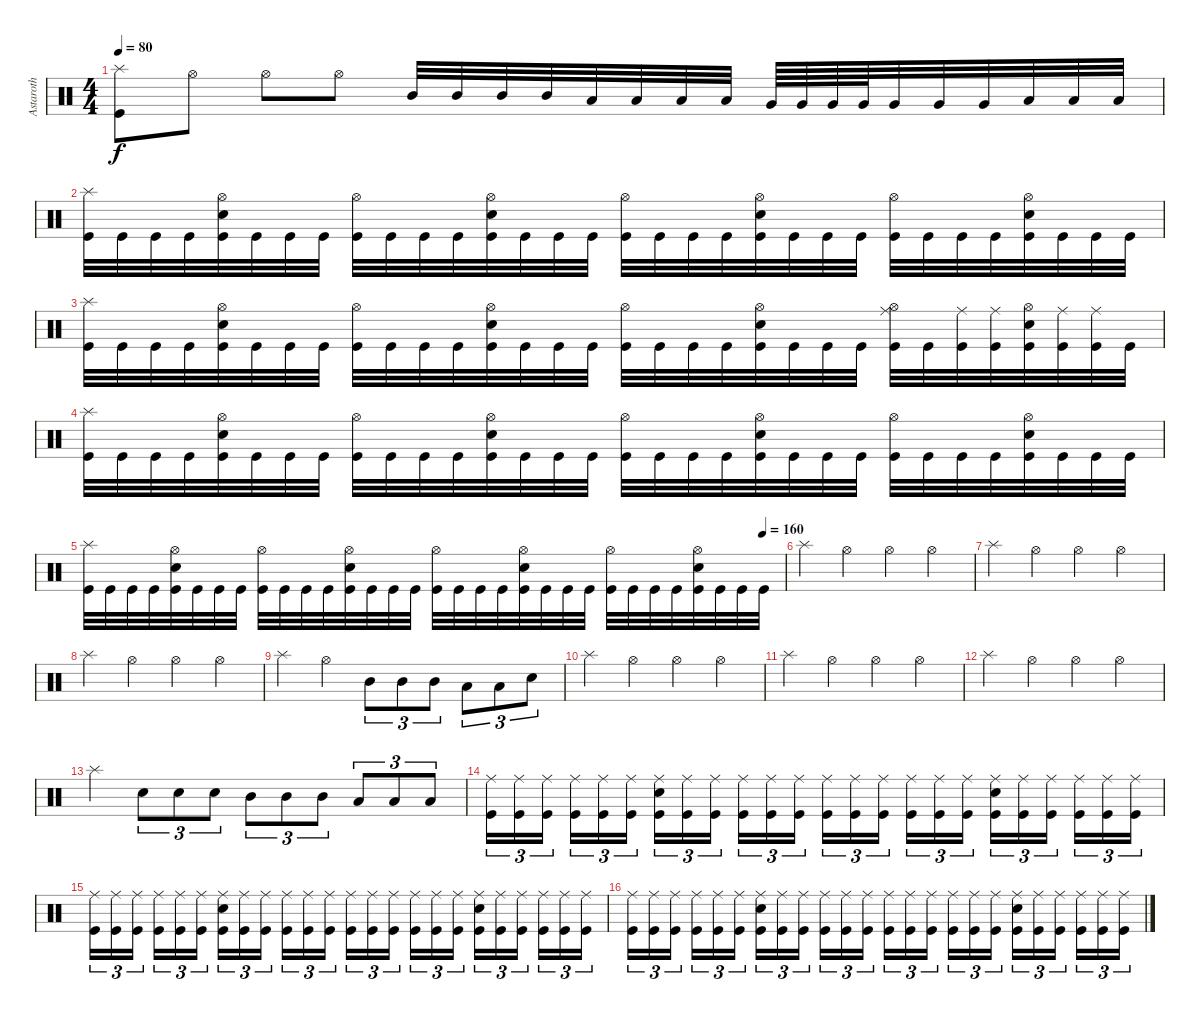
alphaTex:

\track ("Astaroth" "Astaroth") {instrument percussion}
\staff {score}
\articulation defaults
\ts (4 4)
\tempo 80
\clef neutral
\ks c
("Kick (hit)" "Splash (hit)").8{dy f} "Hi-Hat (open)".8 "Hi-Hat (open)".8 "Hi-Hat (open)".8 "Mid Tom (hit)".32 "Mid Tom (hit)".32 "Mid Tom (hit)".32 "Mid Tom (hit)".32 "Low Tom (hit)".32 "Low Tom (hit)".32 "Low Tom (hit)".32 "Low Tom (hit)".32 "Very Low Tom (hit)".64 "Very Low Tom (hit)".64 "Very Low Tom (hit)".64 "Very Low Tom (hit)".64 "Very Low Tom (hit)".32 "Very Low Tom (hit)".32 "Very Low Tom (hit)".32 "Low Floor Tom (hit)".32 "Low Floor Tom (hit)".32 "Low Floor Tom (hit)".32 |
("Kick (hit)" "Splash (hit)").32 "Kick (hit)".32 "Kick (hit)".32 "Kick (hit)".32 ("Kick (hit)" "Electric Snare (hit)" "Hi-Hat (open)").32 "Kick (hit)".32 "Kick (hit)".32 "Kick (hit)".32 ("Kick (hit)" "Hi-Hat (open)").32 "Kick (hit)".32 "Kick (hit)".32 "Kick (hit)".32 ("Kick (hit)" "Electric Snare (hit)" "Hi-Hat (open)").32 "Kick (hit)".32 "Kick (hit)".32 "Kick (hit)".32 ("Kick (hit)" "Hi-Hat (open)").32 "Kick (hit)".32 "Kick (hit)".32 "Kick (hit)".32 ("Kick (hit)" "Electric Snare (hit)" "Hi-Hat (open)").32 "Kick (hit)".32 "Kick (hit)".32 "Kick (hit)".32 ("Kick (hit)" "Hi-Hat (open)").32 "Kick (hit)".32 "Kick (hit)".32 "Kick (hit)".32 ("Kick (hit)" "Electric Snare (hit)" "Hi-Hat (open)").32 "Kick (hit)".32 "Kick (hit)".32 "Kick (hit)".32 |
("Kick (hit)" "Splash (hit)").32 "Kick (hit)".32 "Kick (hit)".32 "Kick (hit)".32 ("Kick (hit)" "Electric Snare (hit)" "Hi-Hat (open)").32 "Kick (hit)".32 "Kick (hit)".32 "Kick (hit)".32 ("Kick (hit)" "Hi-Hat (open)").32 "Kick (hit)".32 "Kick (hit)".32 "Kick (hit)".32 ("Kick (hit)" "Electric Snare (hit)" "Hi-Hat (open)").32 "Kick (hit)".32 "Kick (hit)".32 "Kick (hit)".32 ("Kick (hit)" "Hi-Hat (open)").32 "Kick (hit)".32 "Kick (hit)".32 "Kick (hit)".32 ("Kick (hit)" "Electric Snare (hit)" "Hi-Hat (open)").32 "Kick (hit)".32 "Kick (hit)".32 "Kick (hit)".32 ("Kick (hit)" "Hi-Hat (open)" "Ride (middle)").32 "Kick (hit)".32 ("Kick (hit)" "Ride (middle)").32 ("Kick (hit)" "Ride (middle)").32 ("Kick (hit)" "Electric Snare (hit)" "Hi-Hat (open)").32 ("Kick (hit)" "Ride (middle)").32 ("Kick (hit)" "Ride (middle)").32 "Kick (hit)".32 |
("Kick (hit)" "Splash (hit)").32 "Kick (hit)".32 "Kick (hit)".32 "Kick (hit)".32 ("Kick (hit)" "Electric Snare (hit)" "Hi-Hat (open)").32 "Kick (hit)".32 "Kick (hit)".32 "Kick (hit)".32 ("Kick (hit)" "Hi-Hat (open)").32 "Kick (hit)".32 "Kick (hit)".32 "Kick (hit)".32 ("Kick (hit)" "Electric Snare (hit)" "Hi-Hat (open)").32 "Kick (hit)".32 "Kick (hit)".32 "Kick (hit)".32 ("Kick (hit)" "Hi-Hat (open)").32 "Kick (hit)".32 "Kick (hit)".32 "Kick (hit)".32 ("Kick (hit)" "Electric Snare (hit)" "Hi-Hat (open)").32 "Kick (hit)".32 "Kick (hit)".32 "Kick (hit)".32 ("Kick (hit)" "Hi-Hat (open)").32 "Kick (hit)".32 "Kick (hit)".32 "Kick (hit)".32 ("Kick (hit)" "Electric Snare (hit)" "Hi-Hat (open)").32 "Kick (hit)".32 "Kick (hit)".32 "Kick (hit)".32 |
\tempo (160 0.96875)
("Kick (hit)" "Splash (hit)").32 "Kick (hit)".32 "Kick (hit)".32 "Kick (hit)".32 ("Kick (hit)" "Electric Snare (hit)" "Hi-Hat (open)").32 "Kick (hit)".32 "Kick (hit)".32 "Kick (hit)".32 ("Kick (hit)" "Hi-Hat (open)").32 "Kick (hit)".32 "Kick (hit)".32 "Kick (hit)".32 ("Kick (hit)" "Electric Snare (hit)" "Hi-Hat (open)").32 "Kick (hit)".32 "Kick (hit)".32 "Kick (hit)".32 ("Kick (hit)" "Hi-Hat (open)").32 "Kick (hit)".32 "Kick (hit)".32 "Kick (hit)".32 ("Kick (hit)" "Electric Snare (hit)" "Hi-Hat (open)").32 "Kick (hit)".32 "Kick (hit)".32 "Kick (hit)".32 ("Kick (hit)" "Hi-Hat (open)").32 "Kick (hit)".32 "Kick (hit)".32 "Kick (hit)".32 ("Kick (hit)" "Electric Snare (hit)" "Hi-Hat (open)").32 "Kick (hit)".32 "Kick (hit)".32 "Kick (hit)".32 |
"Splash (hit)".4 "Hi-Hat (open)".4 "Hi-Hat (open)".4 "Hi-Hat (open)".4 |
"Splash (hit)".4 "Hi-Hat (open)".4 "Hi-Hat (open)".4 "Hi-Hat (open)".4 |
"Splash (hit)".4 "Hi-Hat (open)".4 "Hi-Hat (open)".4 "Hi-Hat (open)".4 |
"Splash (hit)".4 "Hi-Hat (open)".4 "Mid Tom (hit)".8{tu (3 2)} "Mid Tom (hit)".8{tu (3 2)} "Mid Tom (hit)".8{tu (3 2)} "Low Tom (hit)".8{tu (3 2)} "Low Tom (hit)".8{tu (3 2)} "Electric Snare (hit)".8{tu (3 2)} |
"Splash (hit)".4 "Hi-Hat (open)".4 "Hi-Hat (open)".4 "Hi-Hat (open)".4 |
"Splash (hit)".4 "Hi-Hat (open)".4 "Hi-Hat (open)".4 "Hi-Hat (open)".4 |
"Splash (hit)".4 "Hi-Hat (open)".4 "Hi-Hat (open)".4 "Hi-Hat (open)".4 |
"Splash (hit)".4 "Electric Snare (hit)".8{tu (3 2)} "Electric Snare (hit)".8{tu (3 2)} "Electric Snare (hit)".8{tu (3 2)} "Mid Tom (hit)".8{tu (3 2)} "Mid Tom (hit)".8{tu (3 2)} "Mid Tom (hit)".8{tu (3 2)} "Low Tom (hit)".8{tu (3 2)} "Low Tom (hit)".8{tu (3 2)} "Low Tom (hit)".8{tu (3 2)} |
("Ride (middle)" "Kick (hit)").16{tu (3 2) volume 13} ("Ride (middle)" "Kick (hit)").16{tu (3 2)} ("Ride (middle)" "Kick (hit)").16{tu (3 2) beam splitsecondary} ("Ride (middle)" "Kick (hit)").16{tu (3 2)} ("Ride (middle)" "Kick (hit)").16{tu (3 2)} ("Ride (middle)" "Kick (hit)").16{tu (3 2)} ("Ride (middle)" "Kick (hit)" "Electric Snare (hit)").16{tu (3 2)} ("Ride (middle)" "Kick (hit)").16{tu (3 2)} ("Ride (middle)" "Kick (hit)").16{tu (3 2) beam splitsecondary} ("Ride (middle)" "Kick (hit)").16{tu (3 2)} ("Ride (middle)" "Kick (hit)").16{tu (3 2)} ("Ride (middle)" "Kick (hit)").16{tu (3 2)} ("Ride (middle)" "Kick (hit)").16{tu (3 2)} ("Ride (middle)" "Kick (hit)").16{tu (3 2)} ("Ride (middle)" "Kick (hit)").16{tu (3 2) beam splitsecondary} ("Ride (middle)" "Kick (hit)").16{tu (3 2)} ("Ride (middle)" "Kick (hit)").16{tu (3 2)} ("Ride (middle)" "Kick (hit)").16{tu (3 2)} ("Ride (middle)" "Kick (hit)" "Electric Snare (hit)").16{tu (3 2)} ("Ride (middle)" "Kick (hit)").16{tu (3 2)} ("Ride (middle)" "Kick (hit)").16{tu (3 2) beam splitsecondary} ("Ride (middle)" "Kick (hit)").16{tu (3 2)} ("Ride (middle)" "Kick (hit)").16{tu (3 2)} ("Ride (middle)" "Kick (hit)").16{tu (3 2)} |
("Ride (middle)" "Kick (hit)").16{tu (3 2)} ("Ride (middle)" "Kick (hit)").16{tu (3 2)} ("Ride (middle)" "Kick (hit)").16{tu (3 2) beam splitsecondary} ("Ride (middle)" "Kick (hit)").16{tu (3 2)} ("Ride (middle)" "Kick (hit)").16{tu (3 2)} ("Ride (middle)" "Kick (hit)").16{tu (3 2)} ("Ride (middle)" "Kick (hit)" "Electric Snare (hit)").16{tu (3 2)} ("Ride (middle)" "Kick (hit)").16{tu (3 2)} ("Ride (middle)" "Kick (hit)").16{tu (3 2) beam splitsecondary} ("Ride (middle)" "Kick (hit)").16{tu (3 2)} ("Ride (middle)" "Kick (hit)").16{tu (3 2)} ("Ride (middle)" "Kick (hit)").16{tu (3 2)} ("Ride (middle)" "Kick (hit)").16{tu (3 2)} ("Ride (middle)" "Kick (hit)").16{tu (3 2)} ("Ride (middle)" "Kick (hit)").16{tu (3 2) beam splitsecondary} ("Ride (middle)" "Kick (hit)").16{tu (3 2)} ("Ride (middle)" "Kick (hit)").16{tu (3 2)} ("Ride (middle)" "Kick (hit)").16{tu (3 2)} ("Ride (middle)" "Kick (hit)" "Electric Snare (hit)").16{tu (3 2)} ("Ride (middle)" "Kick (hit)").16{tu (3 2)} ("Ride (middle)" "Kick (hit)").16{tu (3 2) beam splitsecondary} ("Ride (middle)" "Kick (hit)").16{tu (3 2)} ("Ride (middle)" "Kick (hit)").16{tu (3 2)} ("Ride (middle)" "Kick (hit)").16{tu (3 2)} |
("Ride (middle)" "Kick (hit)").16{tu (3 2)} ("Ride (middle)" "Kick (hit)").16{tu (3 2)} ("Ride (middle)" "Kick (hit)").16{tu (3 2) beam splitsecondary} ("Ride (middle)" "Kick (hit)").16{tu (3 2)} ("Ride (middle)" "Kick (hit)").16{tu (3 2)} ("Ride (middle)" "Kick (hit)").16{tu (3 2)} ("Ride (middle)" "Kick (hit)" "Electric Snare (hit)").16{tu (3 2)} ("Ride (middle)" "Kick (hit)").16{tu (3 2)} ("Ride (middle)" "Kick (hit)").16{tu (3 2) beam splitsecondary} ("Ride (middle)" "Kick (hit)").16{tu (3 2)} ("Ride (middle)" "Kick (hit)").16{tu (3 2)} ("Ride (middle)" "Kick (hit)").16{tu (3 2)} ("Ride (middle)" "Kick (hit)").16{tu (3 2)} ("Ride (middle)" "Kick (hit)").16{tu (3 2)} ("Ride (middle)" "Kick (hit)").16{tu (3 2) beam splitsecondary} ("Ride (middle)" "Kick (hit)").16{tu (3 2)} ("Ride (middle)" "Kick (hit)").16{tu (3 2)} ("Ride (middle)" "Kick (hit)").16{tu (3 2)} ("Ride (middle)" "Kick (hit)" "Electric Snare (hit)").16{tu (3 2)} ("Ride (middle)" "Kick (hit)").16{tu (3 2)} ("Ride (middle)" "Kick (hit)").16{tu (3 2) beam splitsecondary} ("Ride (middle)" "Kick (hit)").16{tu (3 2)} ("Ride (middle)" "Kick (hit)").16{tu (3 2)} ("Ride (middle)" "Kick (hit)").16{tu (3 2)}
